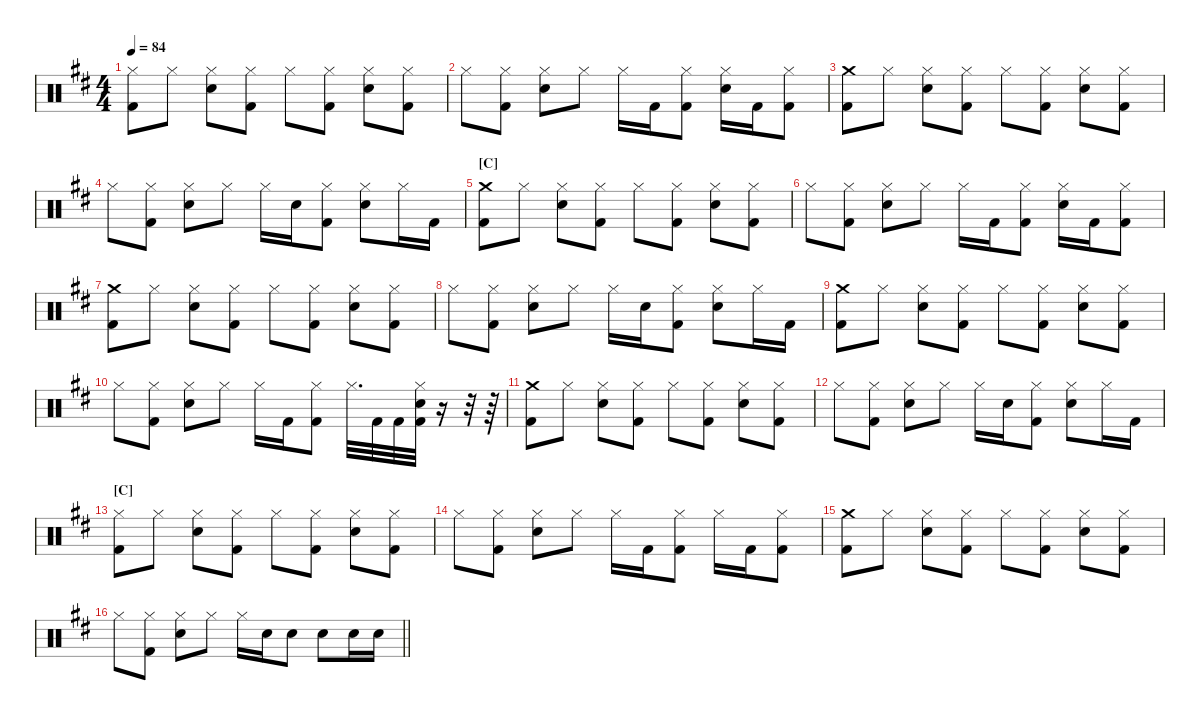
\hideDynamics
\bracketExtendMode nobrackets
\singleTrackTrackNamePolicy hidden
\multiTrackTrackNamePolicy hidden
\otherSystemsTrackNameOrientation horizontal
\track ("Drumkit" "Drums") {instrument percussion}
\staff {score}
\articulation defaults
\ts (4 4)
\tempo 84
\clef neutral
\ks d
("Kick (hit) 2"{acc forcenatural} "Hi-Hat (closed)"{acc forcenatural}).8{dy f beam Down} "Hi-Hat (closed)"{acc forcenatural}.8{beam Down} ("Snare (hit) 2"{acc forcenatural} "Hi-Hat (closed)"{acc forcenatural}).8{beam Down} ("Kick (hit) 2"{acc forcenatural} "Hi-Hat (closed)"{acc forcenatural}).8{beam Down} "Hi-Hat (closed)"{acc forcenatural}.8{beam Down} ("Kick (hit) 2"{acc forcenatural} "Hi-Hat (closed)"{acc forcenatural}).8{beam Down} ("Snare (hit) 2"{acc forcenatural} "Hi-Hat (closed)"{acc forcenatural}).8{beam Down} ("Kick (hit) 2"{acc forcenatural} "Hi-Hat (closed)"{acc forcenatural}).8{beam Down} |
"Hi-Hat (closed)"{acc forcenatural}.8{beam Down} ("Kick (hit) 2"{acc forcenatural} "Hi-Hat (closed)"{acc forcenatural}).8{beam Down} ("Snare (hit) 2"{acc forcenatural} "Hi-Hat (closed)"{acc forcenatural}).8{beam Down} "Hi-Hat (closed)"{acc forcenatural}.8{beam Down} "Hi-Hat (closed)"{acc forcenatural}.16{beam Down} "Kick (hit) 2"{acc forcenatural}.16{beam Down} ("Kick (hit) 2"{acc forcenatural} "Hi-Hat (closed)"{acc forcenatural}).8{beam Down} ("Snare (hit) 2"{acc forcenatural} "Hi-Hat (closed)"{acc forcenatural}).16{beam Down} "Kick (hit) 2"{acc forcenatural}.16{beam Down} ("Kick (hit) 2"{acc forcenatural} "Hi-Hat (closed)"{acc forcenatural}).8{beam Down} |
("Kick (hit) 2"{acc forcenatural} "Crash medium (hit)"{acc forcenatural}).8{beam Down} "Hi-Hat (closed)"{acc forcenatural}.8{beam Down} ("Snare (hit) 2"{acc forcenatural} "Hi-Hat (closed)"{acc forcenatural}).8{beam Down} ("Kick (hit) 2"{acc forcenatural} "Hi-Hat (closed)"{acc forcenatural}).8{beam Down} "Hi-Hat (closed)"{acc forcenatural}.8{beam Down} ("Kick (hit) 2"{acc forcenatural} "Hi-Hat (closed)"{acc forcenatural}).8{beam Down} ("Snare (hit) 2"{acc forcenatural} "Hi-Hat (closed)"{acc forcenatural}).8{beam Down} ("Kick (hit) 2"{acc forcenatural} "Hi-Hat (closed)"{acc forcenatural}).8{beam Down} |
"Hi-Hat (closed)"{acc forcenatural}.8{beam Down} ("Kick (hit) 2"{acc forcenatural} "Hi-Hat (closed)"{acc forcenatural}).8{beam Down} ("Snare (hit) 2"{acc forcenatural} "Hi-Hat (closed)"{acc forcenatural}).8{beam Down} "Hi-Hat (closed)"{acc forcenatural}.8{beam Down} "Hi-Hat (closed)"{acc forcenatural}.16{beam Down} "Snare (hit) 2"{acc forcenatural}.16{beam Down} ("Kick (hit) 2"{acc forcenatural} "Hi-Hat (closed)"{acc forcenatural}).8{beam Down} ("Snare (hit) 2"{acc forcenatural} "Hi-Hat (closed)"{acc forcenatural}).8{beam Down} "Hi-Hat (closed)"{acc forcenatural}.16{beam Down} "Kick (hit) 2"{acc forcenatural}.16{beam Down} |
\section ("C" "")
("Kick (hit) 2"{acc forcenatural} "Crash medium (hit)"{acc forcenatural}).8{beam Down} "Hi-Hat (closed)"{acc forcenatural}.8{beam Down} ("Snare (hit) 2"{acc forcenatural} "Hi-Hat (closed)"{acc forcenatural}).8{beam Down} ("Kick (hit) 2"{acc forcenatural} "Hi-Hat (closed)"{acc forcenatural}).8{beam Down} "Hi-Hat (closed)"{acc forcenatural}.8{beam Down} ("Kick (hit) 2"{acc forcenatural} "Hi-Hat (closed)"{acc forcenatural}).8{beam Down} ("Snare (hit) 2"{acc forcenatural} "Hi-Hat (closed)"{acc forcenatural}).8{beam Down} ("Kick (hit) 2"{acc forcenatural} "Hi-Hat (closed)"{acc forcenatural}).8{beam Down} |
"Hi-Hat (closed)"{acc forcenatural}.8{beam Down} ("Kick (hit) 2"{acc forcenatural} "Hi-Hat (closed)"{acc forcenatural}).8{beam Down} ("Snare (hit) 2"{acc forcenatural} "Hi-Hat (closed)"{acc forcenatural}).8{beam Down} "Hi-Hat (closed)"{acc forcenatural}.8{beam Down} "Hi-Hat (closed)"{acc forcenatural}.16{beam Down} "Kick (hit) 2"{acc forcenatural}.16{beam Down} ("Kick (hit) 2"{acc forcenatural} "Hi-Hat (closed)"{acc forcenatural}).8{beam Down} ("Snare (hit) 2"{acc forcenatural} "Hi-Hat (closed)"{acc forcenatural}).16{beam Down} "Kick (hit) 2"{acc forcenatural}.16{beam Down} ("Kick (hit) 2"{acc forcenatural} "Hi-Hat (closed)"{acc forcenatural}).8{beam Down} |
("Kick (hit) 2"{acc forcenatural} "Crash medium (hit)"{acc forcenatural}).8{beam Down} "Hi-Hat (closed)"{acc forcenatural}.8{beam Down} ("Snare (hit) 2"{acc forcenatural} "Hi-Hat (closed)"{acc forcenatural}).8{beam Down} ("Kick (hit) 2"{acc forcenatural} "Hi-Hat (closed)"{acc forcenatural}).8{beam Down} "Hi-Hat (closed)"{acc forcenatural}.8{beam Down} ("Kick (hit) 2"{acc forcenatural} "Hi-Hat (closed)"{acc forcenatural}).8{beam Down} ("Snare (hit) 2"{acc forcenatural} "Hi-Hat (closed)"{acc forcenatural}).8{beam Down} ("Kick (hit) 2"{acc forcenatural} "Hi-Hat (closed)"{acc forcenatural}).8{beam Down} |
"Hi-Hat (closed)"{acc forcenatural}.8{beam Down} ("Kick (hit) 2"{acc forcenatural} "Hi-Hat (closed)"{acc forcenatural}).8{beam Down} ("Snare (hit) 2"{acc forcenatural} "Hi-Hat (closed)"{acc forcenatural}).8{beam Down} "Hi-Hat (closed)"{acc forcenatural}.8{beam Down} "Hi-Hat (closed)"{acc forcenatural}.16{beam Down} "Snare (hit) 2"{acc forcenatural}.16{beam Down} ("Kick (hit) 2"{acc forcenatural} "Hi-Hat (closed)"{acc forcenatural}).8{beam Down} ("Snare (hit) 2"{acc forcenatural} "Hi-Hat (closed)"{acc forcenatural}).8{beam Down} "Hi-Hat (closed)"{acc forcenatural}.16{beam Down} "Kick (hit) 2"{acc forcenatural}.16{beam Down} |
("Kick (hit) 2"{acc forcenatural} "Crash medium (hit)"{acc forcenatural}).8{beam Down} "Hi-Hat (closed)"{acc forcenatural}.8{beam Down} ("Snare (hit) 2"{acc forcenatural} "Hi-Hat (closed)"{acc forcenatural}).8{beam Down} ("Kick (hit) 2"{acc forcenatural} "Hi-Hat (closed)"{acc forcenatural}).8{beam Down} "Hi-Hat (closed)"{acc forcenatural}.8{beam Down} ("Kick (hit) 2"{acc forcenatural} "Hi-Hat (closed)"{acc forcenatural}).8{beam Down} ("Snare (hit) 2"{acc forcenatural} "Hi-Hat (closed)"{acc forcenatural}).8{beam Down} ("Kick (hit) 2"{acc forcenatural} "Hi-Hat (closed)"{acc forcenatural}).8{beam Down} |
"Hi-Hat (closed)"{acc forcenatural}.8{beam Down} ("Kick (hit) 2"{acc forcenatural} "Hi-Hat (closed)"{acc forcenatural}).8{beam Down} ("Snare (hit) 2"{acc forcenatural} "Hi-Hat (closed)"{acc forcenatural}).8{beam Down} "Hi-Hat (closed)"{acc forcenatural}.8{beam Down} "Hi-Hat (closed)"{acc forcenatural}.16{beam Down} "Kick (hit) 2"{acc forcenatural}.16{beam Down} ("Kick (hit) 2"{acc forcenatural} "Hi-Hat (closed)"{acc forcenatural}).8{beam Down} "Hi-Hat (closed)"{acc forcenatural}.32{d beam Down} "Kick (hit) 2"{acc forcenatural}.32{beam Down} "Kick (hit) 2"{acc forcenatural}.32{beam Down} ("Kick (hit) 2"{acc forcenatural} "Snare (hit) 2"{acc forcenatural} "Hi-Hat (closed)"{acc forcenatural}).32{beam Down} r.16{beam Down} r.32{beam Down} r.64{beam Down} |
("Kick (hit) 2"{acc forcenatural} "Crash medium (hit)"{acc forcenatural}).8{beam Down} "Hi-Hat (closed)"{acc forcenatural}.8{beam Down} ("Snare (hit) 2"{acc forcenatural} "Hi-Hat (closed)"{acc forcenatural}).8{beam Down} ("Kick (hit) 2"{acc forcenatural} "Hi-Hat (closed)"{acc forcenatural}).8{beam Down} "Hi-Hat (closed)"{acc forcenatural}.8{beam Down} ("Kick (hit) 2"{acc forcenatural} "Hi-Hat (closed)"{acc forcenatural}).8{beam Down} ("Snare (hit) 2"{acc forcenatural} "Hi-Hat (closed)"{acc forcenatural}).8{beam Down} ("Kick (hit) 2"{acc forcenatural} "Hi-Hat (closed)"{acc forcenatural}).8{beam Down} |
"Hi-Hat (closed)"{acc forcenatural}.8{beam Down} ("Kick (hit) 2"{acc forcenatural} "Hi-Hat (closed)"{acc forcenatural}).8{beam Down} ("Snare (hit) 2"{acc forcenatural} "Hi-Hat (closed)"{acc forcenatural}).8{beam Down} "Hi-Hat (closed)"{acc forcenatural}.8{beam Down} "Hi-Hat (closed)"{acc forcenatural}.16{beam Down} "Snare (hit) 2"{acc forcenatural}.16{beam Down} ("Kick (hit) 2"{acc forcenatural} "Hi-Hat (closed)"{acc forcenatural}).8{beam Down} ("Snare (hit) 2"{acc forcenatural} "Hi-Hat (closed)"{acc forcenatural}).8{beam Down} "Hi-Hat (closed)"{acc forcenatural}.16{beam Down} "Kick (hit) 2"{acc forcenatural}.16{beam Down} |
\section ("C" "")
("Kick (hit) 2"{acc forcenatural} "Hi-Hat (closed)"{acc forcenatural}).8{beam Down} "Hi-Hat (closed)"{acc forcenatural}.8{beam Down} ("Snare (hit) 2"{acc forcenatural} "Hi-Hat (closed)"{acc forcenatural}).8{beam Down} ("Kick (hit) 2"{acc forcenatural} "Hi-Hat (closed)"{acc forcenatural}).8{beam Down} "Hi-Hat (closed)"{acc forcenatural}.8{beam Down} ("Kick (hit) 2"{acc forcenatural} "Hi-Hat (closed)"{acc forcenatural}).8{beam Down} ("Snare (hit) 2"{acc forcenatural} "Hi-Hat (closed)"{acc forcenatural}).8{beam Down} ("Kick (hit) 2"{acc forcenatural} "Hi-Hat (closed)"{acc forcenatural}).8{beam Down} |
"Hi-Hat (closed)"{acc forcenatural}.8{beam Down} ("Kick (hit) 2"{acc forcenatural} "Hi-Hat (closed)"{acc forcenatural}).8{beam Down} ("Snare (hit) 2"{acc forcenatural} "Hi-Hat (closed)"{acc forcenatural}).8{beam Down} "Hi-Hat (closed)"{acc forcenatural}.8{beam Down} "Hi-Hat (closed)"{acc forcenatural}.16{beam Down} "Kick (hit) 2"{acc forcenatural}.16{beam Down} ("Kick (hit) 2"{acc forcenatural} "Hi-Hat (closed)"{acc forcenatural}).8{beam Down} "Hi-Hat (closed)"{acc forcenatural}.16{beam Down} "Kick (hit) 2"{acc forcenatural}.16{beam Down} ("Kick (hit) 2"{acc forcenatural} "Hi-Hat (closed)"{acc forcenatural}).8{beam Down} |
("Kick (hit) 2"{acc forcenatural} "Crash medium (hit)"{acc forcenatural}).8{beam Down} "Hi-Hat (closed)"{acc forcenatural}.8{beam Down} ("Snare (hit) 2"{acc forcenatural} "Hi-Hat (closed)"{acc forcenatural}).8{beam Down} ("Kick (hit) 2"{acc forcenatural} "Hi-Hat (closed)"{acc forcenatural}).8{beam Down} "Hi-Hat (closed)"{acc forcenatural}.8{beam Down} ("Kick (hit) 2"{acc forcenatural} "Hi-Hat (closed)"{acc forcenatural}).8{beam Down} ("Snare (hit) 2"{acc forcenatural} "Hi-Hat (closed)"{acc forcenatural}).8{beam Down} ("Kick (hit) 2"{acc forcenatural} "Hi-Hat (closed)"{acc forcenatural}).8{beam Down} |
\barLineRight lightlight "Hi-Hat (closed)"{acc forcenatural}.8{beam Down}
("Kick (hit) 2"{acc forcenatural} "Hi-Hat (closed)"{acc forcenatural}).8{beam Down} ("Snare (hit) 2"{acc forcenatural} "Hi-Hat (closed)"{acc forcenatural}).8{beam Down} "Hi-Hat (closed)"{acc forcenatural}.8{beam Down} "Hi-Hat (closed)"{acc forcenatural}.16{beam Down} "Snare (hit) 2"{acc forcenatural}.16{beam Down} "Snare (hit) 2"{acc forcenatural}.8{beam Down} "Snare (hit) 2"{acc forcenatural}.8{beam Down} "Snare (hit) 2"{acc forcenatural}.16{beam Down} "Snare (hit) 2"{acc forcenatural}.16{beam Down}
